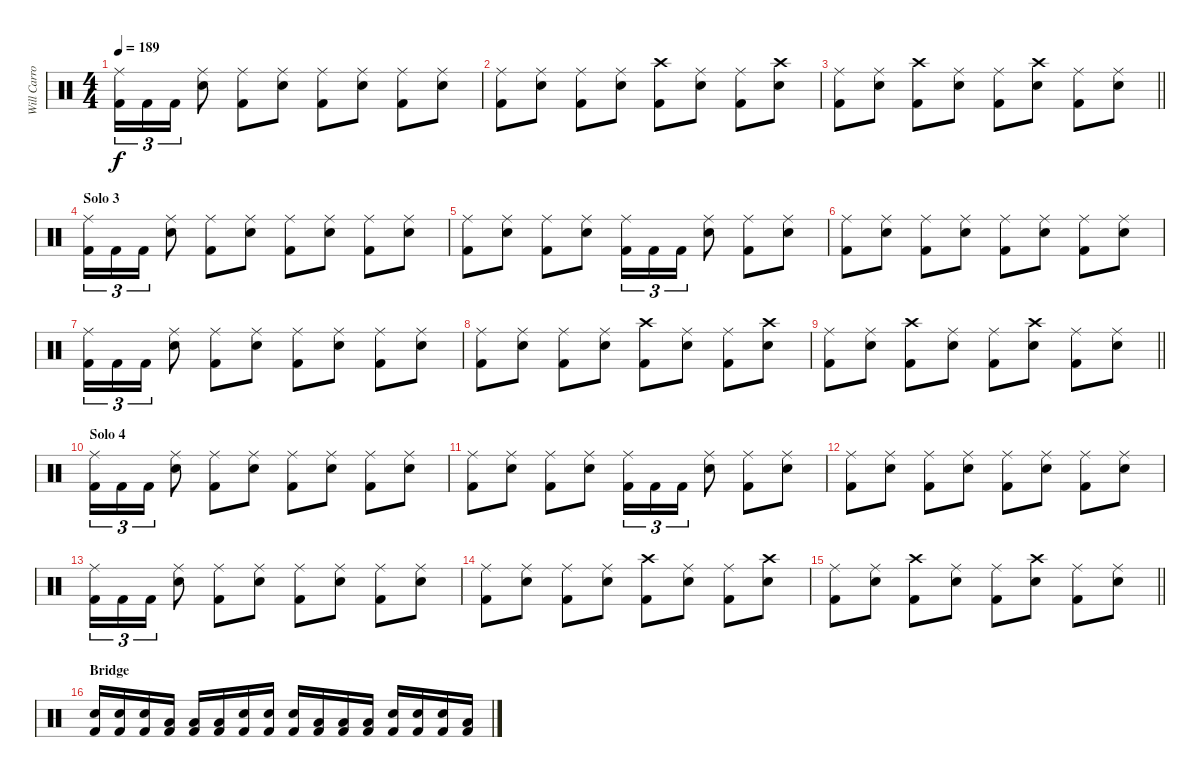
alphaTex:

\track ("Will Carroll" "Will Carro") {instrument percussion}
\staff {score}
\articulation defaults
\ts (4 4)
\tempo 189
\clef neutral
\ks c
("Ride (middle)" "Kick (hit) 2").16{tu (3 2) dy f} "Kick (hit) 2".16{tu (3 2)} "Kick (hit) 2".16{tu (3 2)} ("Ride (middle)" "Electric Snare (hit)").8 ("Ride (middle)" "Kick (hit) 2").8 ("Ride (middle)" "Electric Snare (hit)").8 ("Ride (middle)" "Kick (hit) 2").8 ("Ride (middle)" "Electric Snare (hit)").8 ("Ride (middle)" "Kick (hit) 2").8 ("Ride (middle)" "Electric Snare (hit)").8 |
("Ride (middle)" "Kick (hit) 2").8 ("Ride (middle)" "Electric Snare (hit)").8 ("Ride (middle)" "Kick (hit) 2").8 ("Ride (middle)" "Electric Snare (hit)").8 ("Crash high (hit)" "Kick (hit) 2").8 ("Ride (middle)" "Electric Snare (hit)").8 ("Ride (middle)" "Kick (hit) 2").8 ("Crash high (hit)" "Electric Snare (hit)").8 |
\barLineRight lightlight
("Ride (middle)" "Kick (hit) 2").8 ("Ride (middle)" "Electric Snare (hit)").8 ("Crash high (hit)" "Kick (hit) 2").8 ("Ride (middle)" "Electric Snare (hit)").8 ("Ride (middle)" "Kick (hit) 2").8 ("Crash high (hit)" "Electric Snare (hit)").8 ("Ride (middle)" "Kick (hit) 2").8 ("Ride (middle)" "Electric Snare (hit)").8 |
\section ("" "Solo 3")
("Ride (middle)" "Kick (hit) 2").16{tu (3 2)} "Kick (hit) 2".16{tu (3 2)} "Kick (hit) 2".16{tu (3 2)} ("Ride (middle)" "Electric Snare (hit)").8 ("Ride (middle)" "Kick (hit) 2").8 ("Ride (middle)" "Electric Snare (hit)").8 ("Ride (middle)" "Kick (hit) 2").8 ("Ride (middle)" "Electric Snare (hit)").8 ("Ride (middle)" "Kick (hit) 2").8 ("Ride (middle)" "Electric Snare (hit)").8 |
("Ride (middle)" "Kick (hit) 2").8 ("Ride (middle)" "Electric Snare (hit)").8 ("Ride (middle)" "Kick (hit) 2").8 ("Ride (middle)" "Electric Snare (hit)").8 ("Ride (middle)" "Kick (hit) 2").16{tu (3 2)} "Kick (hit) 2".16{tu (3 2)} "Kick (hit) 2".16{tu (3 2)} ("Ride (middle)" "Electric Snare (hit)").8 ("Ride (middle)" "Kick (hit) 2").8 ("Ride (middle)" "Electric Snare (hit)").8 |
("Ride (middle)" "Kick (hit) 2").8 ("Ride (middle)" "Electric Snare (hit)").8 ("Ride (middle)" "Kick (hit) 2").8 ("Ride (middle)" "Electric Snare (hit)").8 ("Ride (middle)" "Kick (hit) 2").8 ("Ride (middle)" "Electric Snare (hit)").8 ("Ride (middle)" "Kick (hit) 2").8 ("Ride (middle)" "Electric Snare (hit)").8 |
("Ride (middle)" "Kick (hit) 2").16{tu (3 2)} "Kick (hit) 2".16{tu (3 2)} "Kick (hit) 2".16{tu (3 2)} ("Ride (middle)" "Electric Snare (hit)").8 ("Ride (middle)" "Kick (hit) 2").8 ("Ride (middle)" "Electric Snare (hit)").8 ("Ride (middle)" "Kick (hit) 2").8 ("Ride (middle)" "Electric Snare (hit)").8 ("Ride (middle)" "Kick (hit) 2").8 ("Ride (middle)" "Electric Snare (hit)").8 |
("Ride (middle)" "Kick (hit) 2").8 ("Ride (middle)" "Electric Snare (hit)").8 ("Ride (middle)" "Kick (hit) 2").8 ("Ride (middle)" "Electric Snare (hit)").8 ("Crash high (hit)" "Kick (hit) 2").8 ("Ride (middle)" "Electric Snare (hit)").8 ("Ride (middle)" "Kick (hit) 2").8 ("Crash high (hit)" "Electric Snare (hit)").8 |
\barLineRight lightlight
("Ride (middle)" "Kick (hit) 2").8 ("Ride (middle)" "Electric Snare (hit)").8 ("Crash high (hit)" "Kick (hit) 2").8 ("Ride (middle)" "Electric Snare (hit)").8 ("Ride (middle)" "Kick (hit) 2").8 ("Crash high (hit)" "Electric Snare (hit)").8 ("Ride (middle)" "Kick (hit) 2").8 ("Ride (middle)" "Electric Snare (hit)").8 |
\section ("" "Solo 4")
("Ride (middle)" "Kick (hit) 2").16{tu (3 2)} "Kick (hit) 2".16{tu (3 2)} "Kick (hit) 2".16{tu (3 2)} ("Ride (middle)" "Electric Snare (hit)").8 ("Ride (middle)" "Kick (hit) 2").8 ("Ride (middle)" "Electric Snare (hit)").8 ("Ride (middle)" "Kick (hit) 2").8 ("Ride (middle)" "Electric Snare (hit)").8 ("Ride (middle)" "Kick (hit) 2").8 ("Ride (middle)" "Electric Snare (hit)").8 |
("Ride (middle)" "Kick (hit) 2").8 ("Ride (middle)" "Electric Snare (hit)").8 ("Ride (middle)" "Kick (hit) 2").8 ("Ride (middle)" "Electric Snare (hit)").8 ("Ride (middle)" "Kick (hit) 2").16{tu (3 2)} "Kick (hit) 2".16{tu (3 2)} "Kick (hit) 2".16{tu (3 2)} ("Ride (middle)" "Electric Snare (hit)").8 ("Ride (middle)" "Kick (hit) 2").8 ("Ride (middle)" "Electric Snare (hit)").8 |
("Ride (middle)" "Kick (hit) 2").8 ("Ride (middle)" "Electric Snare (hit)").8 ("Ride (middle)" "Kick (hit) 2").8 ("Ride (middle)" "Electric Snare (hit)").8 ("Ride (middle)" "Kick (hit) 2").8 ("Ride (middle)" "Electric Snare (hit)").8 ("Ride (middle)" "Kick (hit) 2").8 ("Ride (middle)" "Electric Snare (hit)").8 |
("Ride (middle)" "Kick (hit) 2").16{tu (3 2)} "Kick (hit) 2".16{tu (3 2)} "Kick (hit) 2".16{tu (3 2)} ("Ride (middle)" "Electric Snare (hit)").8 ("Ride (middle)" "Kick (hit) 2").8 ("Ride (middle)" "Electric Snare (hit)").8 ("Ride (middle)" "Kick (hit) 2").8 ("Ride (middle)" "Electric Snare (hit)").8 ("Ride (middle)" "Kick (hit) 2").8 ("Ride (middle)" "Electric Snare (hit)").8 |
("Ride (middle)" "Kick (hit) 2").8 ("Ride (middle)" "Electric Snare (hit)").8 ("Ride (middle)" "Kick (hit) 2").8 ("Ride (middle)" "Electric Snare (hit)").8 ("Crash high (hit)" "Kick (hit) 2").8 ("Ride (middle)" "Electric Snare (hit)").8 ("Ride (middle)" "Kick (hit) 2").8 ("Crash high (hit)" "Electric Snare (hit)").8 |
\barLineRight lightlight
("Ride (middle)" "Kick (hit) 2").8 ("Ride (middle)" "Electric Snare (hit)").8 ("Crash high (hit)" "Kick (hit) 2").8 ("Ride (middle)" "Electric Snare (hit)").8 ("Ride (middle)" "Kick (hit) 2").8 ("Crash high (hit)" "Electric Snare (hit)").8 ("Ride (middle)" "Kick (hit) 2").8 ("Ride (middle)" "Electric Snare (hit)").8 |
\section ("" "Bridge")
("Electric Snare (hit)" "Kick (hit) 2").16 ("Electric Snare (hit)" "Kick (hit) 2").16 ("Electric Snare (hit)" "Kick (hit) 2").16 ("Low Floor Tom (hit)" "Kick (hit) 2").16 ("Low Floor Tom (hit)" "Kick (hit) 2").16 ("Low Floor Tom (hit)" "Kick (hit) 2").16 ("Electric Snare (hit)" "Kick (hit) 2").16 ("Electric Snare (hit)" "Kick (hit) 2").16 ("Electric Snare (hit)" "Kick (hit) 2").16 ("Low Floor Tom (hit)" "Kick (hit) 2").16 ("Low Floor Tom (hit)" "Kick (hit) 2").16 ("Low Floor Tom (hit)" "Kick (hit) 2").16 ("Electric Snare (hit)" "Kick (hit) 2").16 ("Electric Snare (hit)" "Kick (hit) 2").16 ("Electric Snare (hit)" "Kick (hit) 2").16 ("Low Floor Tom (hit)" "Kick (hit) 2").16
